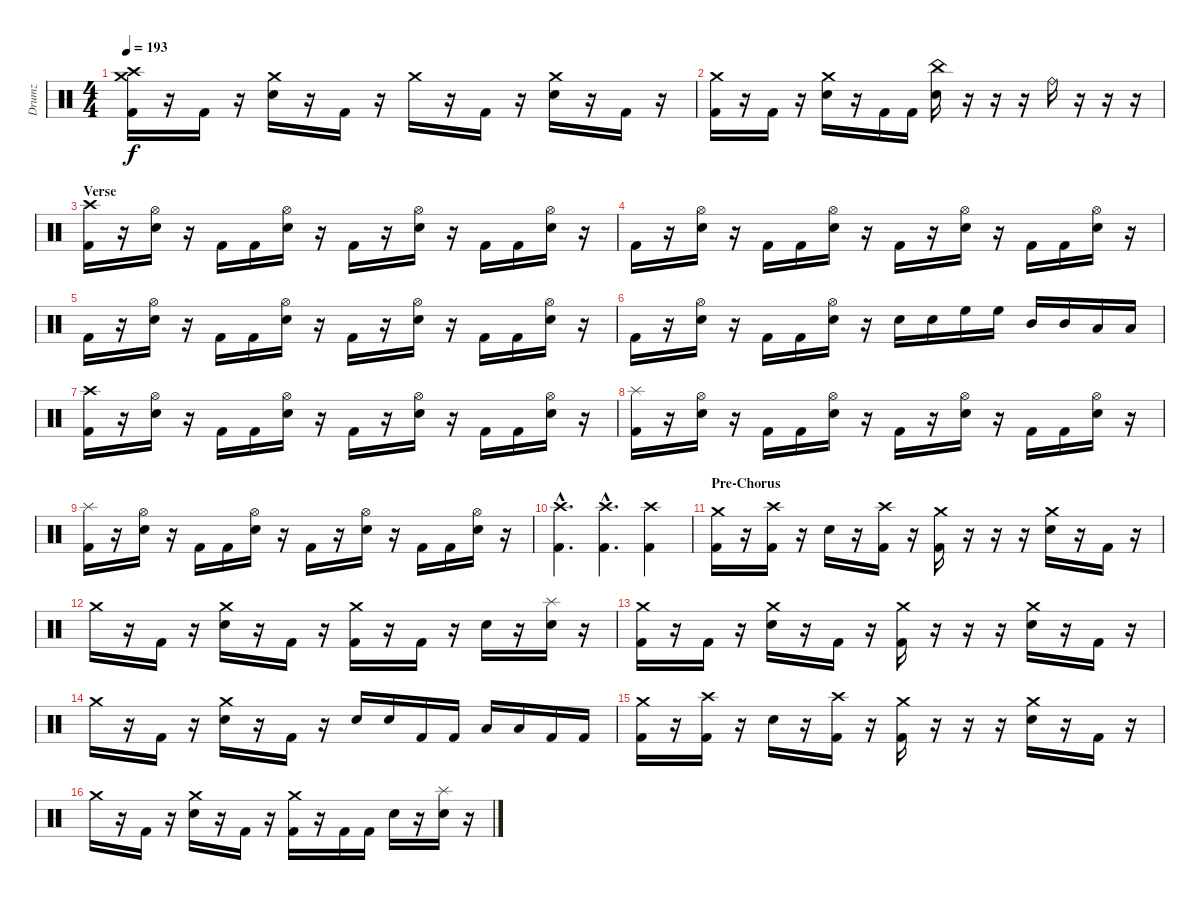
\track ("Drumz" "Drumz") {instrument percussion}
\staff {score}
\articulation defaults
\ts (4 4)
\tempo 193
\clef neutral
\ks c
("Crash medium (hit)" "Crash high (hit)" "Kick (hit) 2").16{dy f} r.16 "Kick (hit) 2".16 r.16 ("Crash medium (hit)" "Electric Snare (hit)").16 r.16 "Kick (hit) 2".16 r.16 "Crash medium (hit)".16 r.16 "Kick (hit) 2".16 r.16 ("Crash medium (hit)" "Electric Snare (hit)").16 r.16 "Kick (hit) 2".16 r.16 |
("Crash medium (hit)" "Kick (hit) 2").16 r.16 "Kick (hit) 2".16 r.16 ("Crash medium (hit)" "Electric Snare (hit)").16 r.16 "Kick (hit) 2".16 "Kick (hit) 2".16 ("China (hit)" "Electric Snare (hit)").16 r.16 r.16 r.16 "Ride (bell)".16 r.16 r.16 r.16 |
\section ("" "Verse")
("Crash high (hit)" "Kick (hit) 2").16 r.16 ("Hi-Hat (open)" "Electric Snare (hit)").16 r.16 "Kick (hit) 2".16 "Kick (hit) 2".16 ("Hi-Hat (open)" "Electric Snare (hit)").16 r.16 "Kick (hit) 2".16 r.16 ("Hi-Hat (open)" "Electric Snare (hit)").16 r.16 "Kick (hit) 2".16 "Kick (hit) 2".16 ("Hi-Hat (open)" "Electric Snare (hit)").16 r.16 |
"Kick (hit) 2".16 r.16 ("Hi-Hat (open)" "Electric Snare (hit)").16 r.16 "Kick (hit) 2".16 "Kick (hit) 2".16 ("Hi-Hat (open)" "Electric Snare (hit)").16 r.16 "Kick (hit) 2".16 r.16 ("Hi-Hat (open)" "Electric Snare (hit)").16 r.16 "Kick (hit) 2".16 "Kick (hit) 2".16 ("Hi-Hat (open)" "Electric Snare (hit)").16 r.16 |
"Kick (hit) 2".16 r.16 ("Hi-Hat (open)" "Electric Snare (hit)").16 r.16 "Kick (hit) 2".16 "Kick (hit) 2".16 ("Hi-Hat (open)" "Electric Snare (hit)").16 r.16 "Kick (hit) 2".16 r.16 ("Hi-Hat (open)" "Electric Snare (hit)").16 r.16 "Kick (hit) 2".16 "Kick (hit) 2".16 ("Hi-Hat (open)" "Electric Snare (hit)").16 r.16 |
"Kick (hit) 2".16 r.16 ("Hi-Hat (open)" "Electric Snare (hit)").16 r.16 "Kick (hit) 2".16 "Kick (hit) 2".16 ("Hi-Hat (open)" "Electric Snare (hit)").16 r.16 "Electric Snare (hit)".16 "Electric Snare (hit)".16 "High Floor Tom (hit)".16 "High Floor Tom (hit)".16 "Mid Tom (hit)".16 "Mid Tom (hit)".16 "Low Tom (hit)".16 "Low Tom (hit)".16 |
("Crash high (hit)" "Kick (hit) 2").16 r.16 ("Hi-Hat (open)" "Electric Snare (hit)").16 r.16 "Kick (hit) 2".16 "Kick (hit) 2".16 ("Hi-Hat (open)" "Electric Snare (hit)").16 r.16 "Kick (hit) 2".16 r.16 ("Hi-Hat (open)" "Electric Snare (hit)").16 r.16 "Kick (hit) 2".16 "Kick (hit) 2".16 ("Hi-Hat (open)" "Electric Snare (hit)").16 r.16 |
("Splash (hit)" "Kick (hit) 2").16 r.16 ("Hi-Hat (open)" "Electric Snare (hit)").16 r.16 "Kick (hit) 2".16 "Kick (hit) 2".16 ("Hi-Hat (open)" "Electric Snare (hit)").16 r.16 "Kick (hit) 2".16 r.16 ("Hi-Hat (open)" "Electric Snare (hit)").16 r.16 "Kick (hit) 2".16 "Kick (hit) 2".16 ("Hi-Hat (open)" "Electric Snare (hit)").16 r.16 |
("Splash (hit)" "Kick (hit) 2").16 r.16 ("Hi-Hat (open)" "Electric Snare (hit)").16 r.16 "Kick (hit) 2".16 "Kick (hit) 2".16 ("Hi-Hat (open)" "Electric Snare (hit)").16 r.16 "Kick (hit) 2".16 r.16 ("Hi-Hat (open)" "Electric Snare (hit)").16 r.16 "Kick (hit) 2".16 "Kick (hit) 2".16 ("Hi-Hat (open)" "Electric Snare (hit)").16 r.16 |
("Crash high (hit)"{hac} "Kick (hit) 2"{hac}).4{d} ("Crash high (hit)"{hac} "Kick (hit) 2"{hac}).4{d} ("Crash high (hit)" "Kick (hit) 2").4 |
\section ("" "Pre-Chorus")
("Crash medium (hit)" "Kick (hit) 2").16 r.16 ("Crash high (hit)" "Kick (hit) 2").16 r.16 "Electric Snare (hit)".16 r.16 ("Crash high (hit)" "Kick (hit) 2").16 r.16 ("Crash medium (hit)" "Kick (hit) 2").16 r.16 r.16 r.16 ("Crash medium (hit)" "Electric Snare (hit)").16 r.16 "Kick (hit) 2".16 r.16 |
"Crash medium (hit)".16 r.16 "Kick (hit) 2".16 r.16 ("Crash medium (hit)" "Electric Snare (hit)").16 r.16 "Kick (hit) 2".16 r.16 ("Crash medium (hit)" "Kick (hit) 2").16 r.16 "Kick (hit) 2".16 r.16 "Electric Snare (hit)".16 r.16 ("Splash (hit)" "Electric Snare (hit)").16 r.16 |
("Crash medium (hit)" "Kick (hit) 2").16 r.16 "Kick (hit) 2".16 r.16 ("Crash medium (hit)" "Electric Snare (hit)").16 r.16 "Kick (hit) 2".16 r.16 ("Crash medium (hit)" "Kick (hit) 2").16 r.16 r.16 r.16 ("Crash medium (hit)" "Electric Snare (hit)").16 r.16 "Kick (hit) 2".16 r.16 |
"Crash medium (hit)".16 r.16 "Kick (hit) 2".16 r.16 ("Crash medium (hit)" "Electric Snare (hit)").16 r.16 "Kick (hit) 2".16 r.16 "Electric Snare (hit)".16 "Electric Snare (hit)".16 "Kick (hit) 2".16 "Kick (hit) 2".16 "Low Tom (hit)".16 "Low Tom (hit)".16 "Kick (hit) 2".16 "Kick (hit) 2".16 |
("Crash medium (hit)" "Kick (hit) 2").16 r.16 ("Crash high (hit)" "Kick (hit) 2").16 r.16 "Electric Snare (hit)".16 r.16 ("Crash high (hit)" "Kick (hit) 2").16 r.16 ("Crash medium (hit)" "Kick (hit) 2").16 r.16 r.16 r.16 ("Crash medium (hit)" "Electric Snare (hit)").16 r.16 "Kick (hit) 2".16 r.16 |
"Crash medium (hit)".16 r.16 "Kick (hit) 2".16 r.16 ("Crash medium (hit)" "Electric Snare (hit)").16 r.16 "Kick (hit) 2".16 r.16 ("Crash medium (hit)" "Kick (hit) 2").16 r.16 "Kick (hit) 2".16 "Kick (hit) 2".16 "Electric Snare (hit)".16 r.16 ("Splash (hit)" "Electric Snare (hit)").16 r.16
